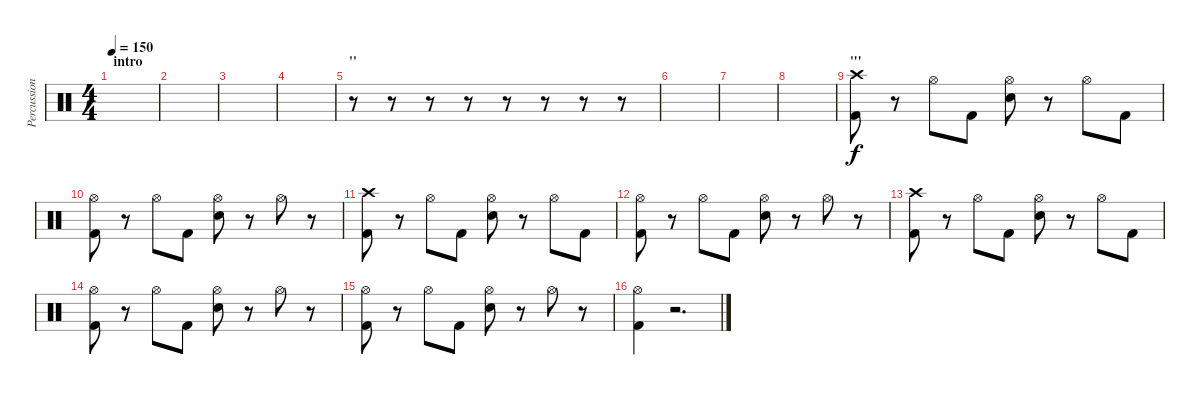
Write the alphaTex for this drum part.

\track ("Percussion" "Percussion") {instrument percussion}
\staff {score}
\articulation defaults
\ts (4 4)
\section ("" "intro")
\tempo 150
\clef neutral
\ks c
|
|
|
|
\section ("" "''")
r.8 r.8 r.8 r.8 r.8 r.8 r.8 r.8 |
|
|
|
\section ("" "'''")
("Crash high (hit)" "Kick (hit) 2").8 r.8 "Hi-Hat (open)".8 "Kick (hit) 2".8 ("Hi-Hat (open)" "Electric Snare (hit)").8 r.8 "Hi-Hat (open)".8 "Kick (hit) 2".8 |
("Hi-Hat (open)" "Kick (hit) 2").8 r.8 "Hi-Hat (open)".8 "Kick (hit) 2".8 ("Hi-Hat (open)" "Electric Snare (hit)").8 r.8 "Hi-Hat (open)".8 r.8 |
("Crash high (hit)" "Kick (hit) 2").8 r.8 "Hi-Hat (open)".8 "Kick (hit) 2".8 ("Hi-Hat (open)" "Electric Snare (hit)").8 r.8 "Hi-Hat (open)".8 "Kick (hit) 2".8 |
("Hi-Hat (open)" "Kick (hit) 2").8 r.8 "Hi-Hat (open)".8 "Kick (hit) 2".8 ("Hi-Hat (open)" "Electric Snare (hit)").8 r.8 "Hi-Hat (open)".8 r.8 |
("Crash high (hit)" "Kick (hit) 2").8 r.8 "Hi-Hat (open)".8 "Kick (hit) 2".8 ("Hi-Hat (open)" "Electric Snare (hit)").8 r.8 "Hi-Hat (open)".8 "Kick (hit) 2".8 |
("Hi-Hat (open)" "Kick (hit) 2").8 r.8 "Hi-Hat (open)".8 "Kick (hit) 2".8 ("Hi-Hat (open)" "Electric Snare (hit)").8 r.8 "Hi-Hat (open)".8 r.8 |
("Hi-Hat (open)" "Kick (hit) 2").8 r.8 "Hi-Hat (open)".8 "Kick (hit) 2".8 ("Hi-Hat (open)" "Electric Snare (hit)").8 r.8 "Hi-Hat (open)".8 r.8 |
("Hi-Hat (open)" "Kick (hit) 2").4 r.2{d}
